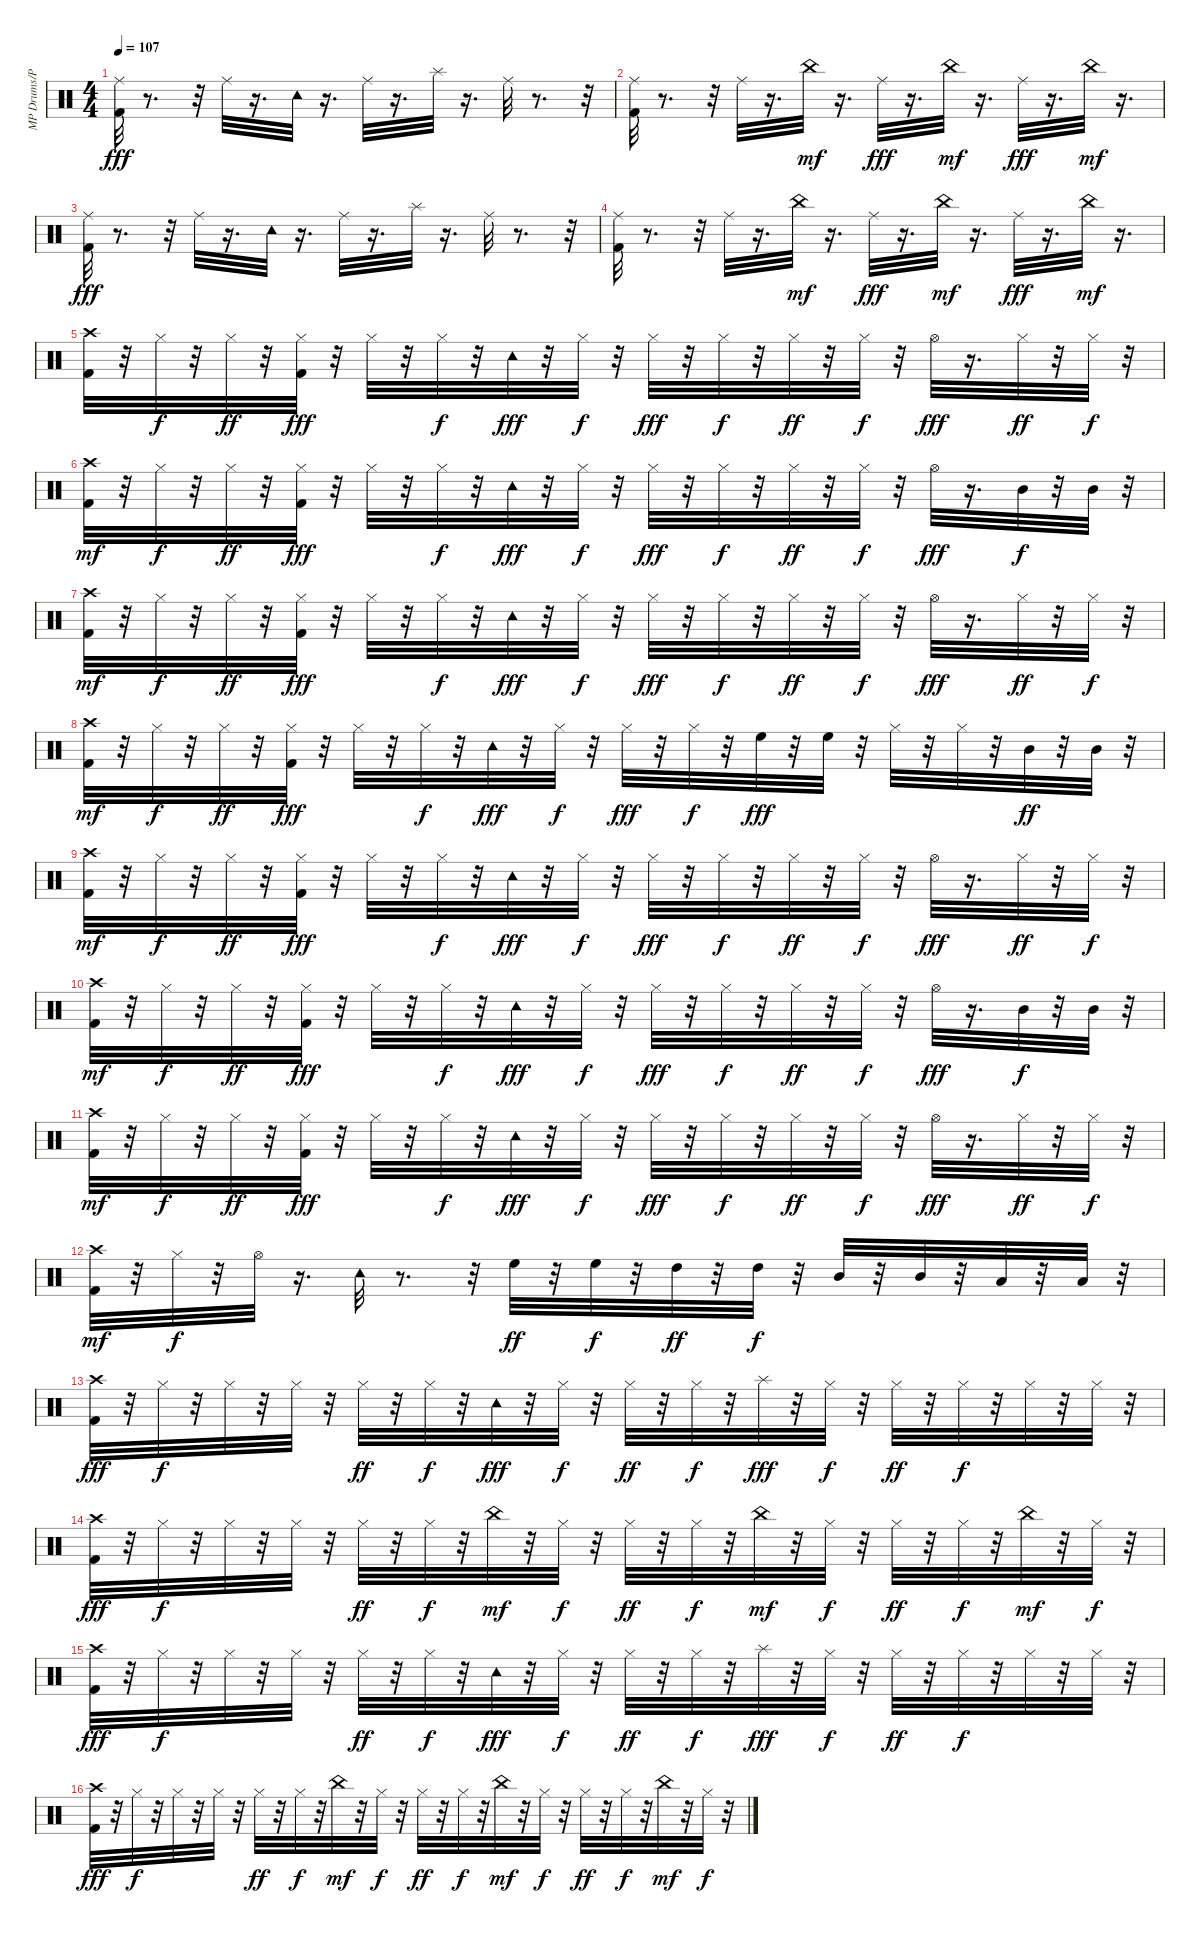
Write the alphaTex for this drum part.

\track ("MP Drums/Percussion" "MP Drums/P") {instrument percussion}
\staff {score}
\articulation defaults
\ts (4 4)
\tempo 107
\clef neutral
\ks c
("Kick (hit) 2" "Ride (middle)").32{dy fff} r.8{d} r.32 "Ride (middle)".32 r.16{d} "Tambourine (hit)".32 r.16{d} "Ride (middle)".32 r.16{d} "Splash (hit)".32 r.16{d} "Ride (middle)".32 r.8{d} r.32 |
("Kick (hit) 2" "Ride (middle)").32 r.8{d} r.32 "Ride (middle)".32 r.16{d} "China (hit)".32{dy mf} r.16{d} "Ride (middle)".32{dy fff} r.16{d} "China (hit)".32{dy mf} r.16{d} "Ride (middle)".32{dy fff} r.16{d} "China (hit)".32{dy mf} r.16{d} |
("Kick (hit) 2" "Ride (middle)").32{dy fff} r.8{d} r.32 "Ride (middle)".32 r.16{d} "Tambourine (hit)".32 r.16{d} "Ride (middle)".32 r.16{d} "Splash (hit)".32 r.16{d} "Ride (middle)".32 r.8{d} r.32 |
("Kick (hit) 2" "Ride (middle)").32 r.8{d} r.32 "Ride (middle)".32 r.16{d} "China (hit)".32{dy mf} r.16{d} "Ride (middle)".32{dy fff} r.16{d} "China (hit)".32{dy mf} r.16{d} "Ride (middle)".32{dy fff} r.16{d} "China (hit)".32{dy mf} r.16{d} |
("Kick (hit) 2" "Crash high (hit)").32 r.32 "Hi-Hat (closed)".32{dy f} r.32 "Hi-Hat (closed)".32{dy ff} r.32 ("Kick (hit) 2" "Hi-Hat (closed)").32{dy fff} r.32 "Hi-Hat (closed)".32 r.32 "Hi-Hat (closed)".32{dy f} r.32 "Tambourine (hit)".32{dy fff} r.32 "Hi-Hat (closed)".32{dy f} r.32 "Hi-Hat (closed)".32{dy fff} r.32 "Hi-Hat (closed)".32{dy f} r.32 "Hi-Hat (closed)".32{dy ff} r.32 "Hi-Hat (closed)".32{dy f} r.32 "Hi-Hat (open)".32{dy fff} r.16{d} "Hi-Hat (closed)".32{dy ff} r.32 "Hi-Hat (closed)".32{dy f} r.32 |
("Kick (hit) 2" "Crash high (hit)").32{dy mf} r.32 "Hi-Hat (closed)".32{dy f} r.32 "Hi-Hat (closed)".32{dy ff} r.32 ("Kick (hit) 2" "Hi-Hat (closed)").32{dy fff} r.32 "Hi-Hat (closed)".32 r.32 "Hi-Hat (closed)".32{dy f} r.32 "Tambourine (hit)".32{dy fff} r.32 "Hi-Hat (closed)".32{dy f} r.32 "Hi-Hat (closed)".32{dy fff} r.32 "Hi-Hat (closed)".32{dy f} r.32 "Hi-Hat (closed)".32{dy ff} r.32 "Hi-Hat (closed)".32{dy f} r.32 "Hi-Hat (open)".32{dy fff} r.16{d} "Mid Tom (hit)".32{dy f} r.32 "Mid Tom (hit)".32 r.32 |
("Kick (hit) 2" "Crash high (hit)").32{dy mf} r.32 "Hi-Hat (closed)".32{dy f} r.32 "Hi-Hat (closed)".32{dy ff} r.32 ("Kick (hit) 2" "Hi-Hat (closed)").32{dy fff} r.32 "Hi-Hat (closed)".32 r.32 "Hi-Hat (closed)".32{dy f} r.32 "Tambourine (hit)".32{dy fff} r.32 "Hi-Hat (closed)".32{dy f} r.32 "Hi-Hat (closed)".32{dy fff} r.32 "Hi-Hat (closed)".32{dy f} r.32 "Hi-Hat (closed)".32{dy ff} r.32 "Hi-Hat (closed)".32{dy f} r.32 "Hi-Hat (open)".32{dy fff} r.16{d} "Hi-Hat (closed)".32{dy ff} r.32 "Hi-Hat (closed)".32{dy f} r.32 |
("Kick (hit) 2" "Crash high (hit)").32{dy mf} r.32 "Hi-Hat (closed)".32{dy f} r.32 "Hi-Hat (closed)".32{dy ff} r.32 ("Kick (hit) 2" "Hi-Hat (closed)").32{dy fff} r.32 "Hi-Hat (closed)".32 r.32 "Hi-Hat (closed)".32{dy f} r.32 "Tambourine (hit)".32{dy fff} r.32 "Hi-Hat (closed)".32{dy f} r.32 "Hi-Hat (closed)".32{dy fff} r.32 "Hi-Hat (closed)".32{dy f} r.32 "High Floor Tom (hit)".32{dy fff} r.32 "High Floor Tom (hit)".32 r.32 "Hi-Hat (closed)".32 r.32 "Hi-Hat (closed)".32 r.32 "Mid Tom (hit)".32{dy ff} r.32 "Mid Tom (hit)".32 r.32 |
("Kick (hit) 2" "Crash high (hit)").32{dy mf} r.32 "Hi-Hat (closed)".32{dy f} r.32 "Hi-Hat (closed)".32{dy ff} r.32 ("Kick (hit) 2" "Hi-Hat (closed)").32{dy fff} r.32 "Hi-Hat (closed)".32 r.32 "Hi-Hat (closed)".32{dy f} r.32 "Tambourine (hit)".32{dy fff} r.32 "Hi-Hat (closed)".32{dy f} r.32 "Hi-Hat (closed)".32{dy fff} r.32 "Hi-Hat (closed)".32{dy f} r.32 "Hi-Hat (closed)".32{dy ff} r.32 "Hi-Hat (closed)".32{dy f} r.32 "Hi-Hat (open)".32{dy fff} r.16{d} "Hi-Hat (closed)".32{dy ff} r.32 "Hi-Hat (closed)".32{dy f} r.32 |
("Kick (hit) 2" "Crash high (hit)").32{dy mf} r.32 "Hi-Hat (closed)".32{dy f} r.32 "Hi-Hat (closed)".32{dy ff} r.32 ("Kick (hit) 2" "Hi-Hat (closed)").32{dy fff} r.32 "Hi-Hat (closed)".32 r.32 "Hi-Hat (closed)".32{dy f} r.32 "Tambourine (hit)".32{dy fff} r.32 "Hi-Hat (closed)".32{dy f} r.32 "Hi-Hat (closed)".32{dy fff} r.32 "Hi-Hat (closed)".32{dy f} r.32 "Hi-Hat (closed)".32{dy ff} r.32 "Hi-Hat (closed)".32{dy f} r.32 "Hi-Hat (open)".32{dy fff} r.16{d} "Mid Tom (hit)".32{dy f} r.32 "Mid Tom (hit)".32 r.32 |
("Kick (hit) 2" "Crash high (hit)").32{dy mf} r.32 "Hi-Hat (closed)".32{dy f} r.32 "Hi-Hat (closed)".32{dy ff} r.32 ("Kick (hit) 2" "Hi-Hat (closed)").32{dy fff} r.32 "Hi-Hat (closed)".32 r.32 "Hi-Hat (closed)".32{dy f} r.32 "Tambourine (hit)".32{dy fff} r.32 "Hi-Hat (closed)".32{dy f} r.32 "Hi-Hat (closed)".32{dy fff} r.32 "Hi-Hat (closed)".32{dy f} r.32 "Hi-Hat (closed)".32{dy ff} r.32 "Hi-Hat (closed)".32{dy f} r.32 "Hi-Hat (open)".32{dy fff} r.16{d} "Hi-Hat (closed)".32{dy ff} r.32 "Hi-Hat (closed)".32{dy f} r.32 |
("Kick (hit) 2" "Crash high (hit)").32{dy mf} r.32 "Hi-Hat (closed)".32{dy f} r.32 "Hi-Hat (open)".32 r.16{d} "Tambourine (hit)".32 r.8{d} r.32 "High Floor Tom (hit)".32{dy ff} r.32 "High Floor Tom (hit)".32{dy f} r.32 "High Tom (hit)".32{dy ff} r.32 "High Tom (hit)".32{dy f} r.32 "Mid Tom (hit)".32 r.32 "Mid Tom (hit)".32 r.32 "Low Tom (hit)".32 r.32 "Low Tom (hit)".32 r.32 |
("Kick (hit) 2" "Crash high (hit)").32{dy fff} r.32 "Hi-Hat (closed)".32{dy f} r.32 "Hi-Hat (closed)".32 r.32 "Hi-Hat (closed)".32 r.32 "Hi-Hat (closed)".32{dy ff} r.32 "Hi-Hat (closed)".32{dy f} r.32 "Tambourine (hit)".32{dy fff} r.32 "Hi-Hat (closed)".32{dy f} r.32 "Hi-Hat (closed)".32{dy ff} r.32 "Hi-Hat (closed)".32{dy f} r.32 "Splash (hit)".32{dy fff} r.32 "Hi-Hat (closed)".32{dy f} r.32 "Hi-Hat (closed)".32{dy ff} r.32 "Hi-Hat (closed)".32{dy f} r.32 "Hi-Hat (closed)".32 r.32 "Hi-Hat (closed)".32 r.32 |
("Kick (hit) 2" "Crash high (hit)").32{dy fff} r.32 "Hi-Hat (closed)".32{dy f} r.32 "Hi-Hat (closed)".32 r.32 "Hi-Hat (closed)".32 r.32 "Hi-Hat (closed)".32{dy ff} r.32 "Hi-Hat (closed)".32{dy f} r.32 "China (hit)".32{dy mf} r.32 "Hi-Hat (closed)".32{dy f} r.32 "Hi-Hat (closed)".32{dy ff} r.32 "Hi-Hat (closed)".32{dy f} r.32 "China (hit)".32{dy mf} r.32 "Hi-Hat (closed)".32{dy f} r.32 "Hi-Hat (closed)".32{dy ff} r.32 "Hi-Hat (closed)".32{dy f} r.32 "China (hit)".32{dy mf} r.32 "Hi-Hat (closed)".32{dy f} r.32 |
("Kick (hit) 2" "Crash high (hit)").32{dy fff} r.32 "Hi-Hat (closed)".32{dy f} r.32 "Hi-Hat (closed)".32 r.32 "Hi-Hat (closed)".32 r.32 "Hi-Hat (closed)".32{dy ff} r.32 "Hi-Hat (closed)".32{dy f} r.32 "Tambourine (hit)".32{dy fff} r.32 "Hi-Hat (closed)".32{dy f} r.32 "Hi-Hat (closed)".32{dy ff} r.32 "Hi-Hat (closed)".32{dy f} r.32 "Splash (hit)".32{dy fff} r.32 "Hi-Hat (closed)".32{dy f} r.32 "Hi-Hat (closed)".32{dy ff} r.32 "Hi-Hat (closed)".32{dy f} r.32 "Hi-Hat (closed)".32 r.32 "Hi-Hat (closed)".32 r.32 |
("Kick (hit) 2" "Crash high (hit)").32{dy fff} r.32 "Hi-Hat (closed)".32{dy f} r.32 "Hi-Hat (closed)".32 r.32 "Hi-Hat (closed)".32 r.32 "Hi-Hat (closed)".32{dy ff} r.32 "Hi-Hat (closed)".32{dy f} r.32 "China (hit)".32{dy mf} r.32 "Hi-Hat (closed)".32{dy f} r.32 "Hi-Hat (closed)".32{dy ff} r.32 "Hi-Hat (closed)".32{dy f} r.32 "China (hit)".32{dy mf} r.32 "Hi-Hat (closed)".32{dy f} r.32 "Hi-Hat (closed)".32{dy ff} r.32 "Hi-Hat (closed)".32{dy f} r.32 "China (hit)".32{dy mf} r.32 "Hi-Hat (closed)".32{dy f} r.32
